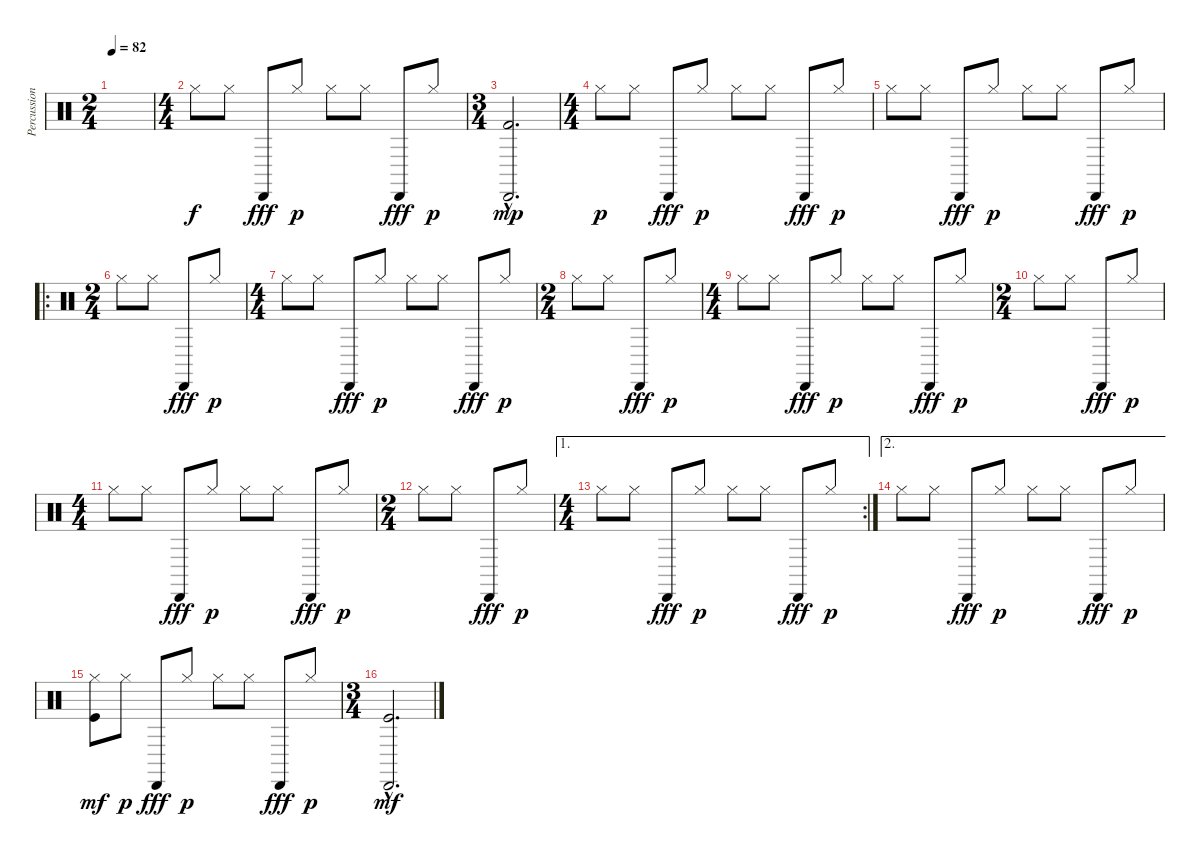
\track ("Percussions" "Percussion") {instrument percussion}
\staff {score}
\articulation defaults
\ts (2 4)
\tempo 82
\clef neutral
\ks c
|
\ts (4 4)
"Hi-Hat (closed)".8 "Hi-Hat (closed)".8 "Cabasa (hit)".8{dy fff} "Hi-Hat (closed)".8{dy p} "Hi-Hat (closed)".8 "Hi-Hat (closed)".8 "Cabasa (hit)".8{dy fff} "Hi-Hat (closed)".8{dy p} |
\ts (3 4)
("Cabasa (hit)"{hac} "Kick (hit) 2"{hac}).2{d dy mp} |
\ts (4 4)
"Hi-Hat (closed)".8{dy p} "Hi-Hat (closed)".8 "Cabasa (hit)".8{dy fff} "Hi-Hat (closed)".8{dy p} "Hi-Hat (closed)".8 "Hi-Hat (closed)".8 "Cabasa (hit)".8{dy fff} "Hi-Hat (closed)".8{dy p} |
"Hi-Hat (closed)".8 "Hi-Hat (closed)".8 "Cabasa (hit)".8{dy fff} "Hi-Hat (closed)".8{dy p} "Hi-Hat (closed)".8 "Hi-Hat (closed)".8 "Cabasa (hit)".8{dy fff} "Hi-Hat (closed)".8{dy p} |
\ro
\ts (2 4)
"Hi-Hat (closed)".8 "Hi-Hat (closed)".8 "Cabasa (hit)".8{dy fff} "Hi-Hat (closed)".8{dy p} |
\ts (4 4)
"Hi-Hat (closed)".8 "Hi-Hat (closed)".8 "Cabasa (hit)".8{dy fff} "Hi-Hat (closed)".8{dy p} "Hi-Hat (closed)".8 "Hi-Hat (closed)".8 "Cabasa (hit)".8{dy fff} "Hi-Hat (closed)".8{dy p} |
\ts (2 4)
"Hi-Hat (closed)".8 "Hi-Hat (closed)".8 "Cabasa (hit)".8{dy fff} "Hi-Hat (closed)".8{dy p} |
\ts (4 4)
"Hi-Hat (closed)".8 "Hi-Hat (closed)".8 "Cabasa (hit)".8{dy fff} "Hi-Hat (closed)".8{dy p} "Hi-Hat (closed)".8 "Hi-Hat (closed)".8 "Cabasa (hit)".8{dy fff} "Hi-Hat (closed)".8{dy p} |
\ts (2 4)
"Hi-Hat (closed)".8 "Hi-Hat (closed)".8 "Cabasa (hit)".8{dy fff} "Hi-Hat (closed)".8{dy p} |
\ts (4 4)
"Hi-Hat (closed)".8 "Hi-Hat (closed)".8 "Cabasa (hit)".8{dy fff} "Hi-Hat (closed)".8{dy p} "Hi-Hat (closed)".8 "Hi-Hat (closed)".8 "Cabasa (hit)".8{dy fff} "Hi-Hat (closed)".8{dy p} |
\ts (2 4)
"Hi-Hat (closed)".8 "Hi-Hat (closed)".8 "Cabasa (hit)".8{dy fff} "Hi-Hat (closed)".8{dy p} |
\ae 1
\rc 2
\ts (4 4)
"Hi-Hat (closed)".8 "Hi-Hat (closed)".8 "Cabasa (hit)".8{dy fff} "Hi-Hat (closed)".8{dy p} "Hi-Hat (closed)".8 "Hi-Hat (closed)".8 "Cabasa (hit)".8{dy fff} "Hi-Hat (closed)".8{dy p} |
\ae 2 "Hi-Hat (closed)".8 "Hi-Hat (closed)".8 "Cabasa (hit)".8{dy fff} "Hi-Hat (closed)".8{dy p} "Hi-Hat (closed)".8 "Hi-Hat (closed)".8 "Cabasa (hit)".8{dy fff} "Hi-Hat (closed)".8{dy p}
|
("Hi-Hat (closed)" "Kick (hit)").8{dy mf} "Hi-Hat (closed)".8{dy p} "Cabasa (hit)".8{dy fff} "Hi-Hat (closed)".8{dy p} "Hi-Hat (closed)".8 "Hi-Hat (closed)".8 "Cabasa (hit)".8{dy fff} "Hi-Hat (closed)".8{dy p} |
\ts (3 4)
("Cabasa (hit)"{hac} "Kick (hit)"{hac}).2{d dy mf}
